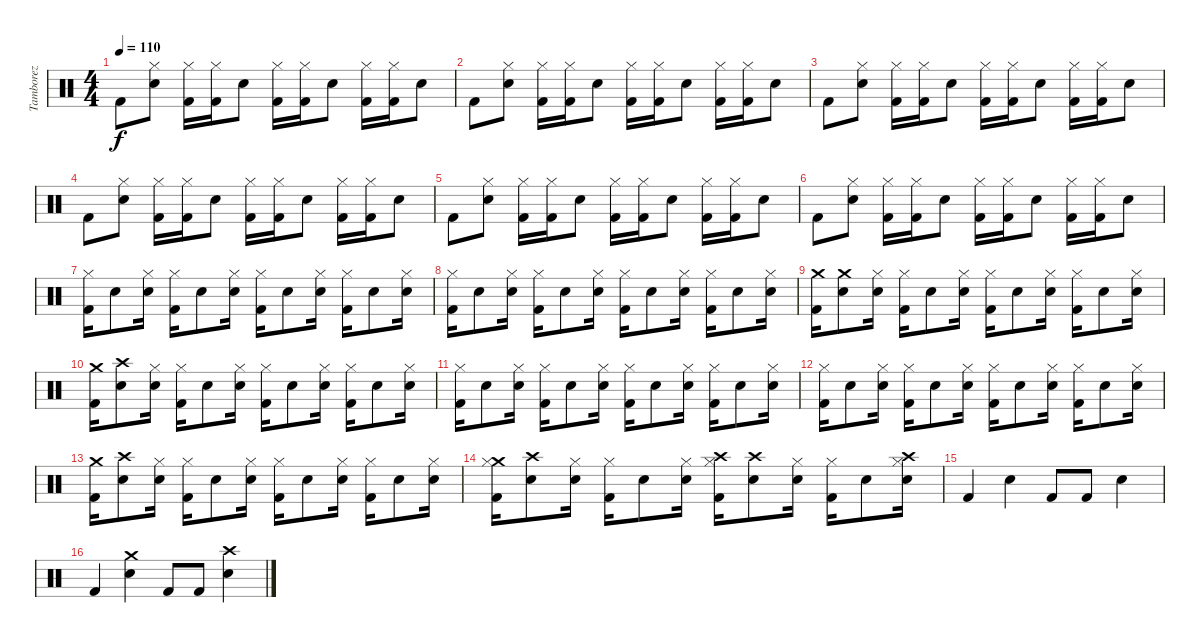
\track ("Tamborez" "Tamborez") {instrument percussion}
\staff {score}
\articulation defaults
\ts (4 4)
\tempo 110
\clef neutral
\ks c "Kick (hit) 2".8{dy f}
("Electric Snare (hit)" "Hi-Hat (closed)").8 ("Kick (hit) 2" "Hi-Hat (closed)").16 ("Kick (hit) 2" "Hi-Hat (closed)").16 "Electric Snare (hit)".8 ("Kick (hit) 2" "Hi-Hat (closed)").16 ("Kick (hit) 2" "Hi-Hat (closed)").16 "Electric Snare (hit)".8 ("Kick (hit) 2" "Hi-Hat (closed)").16 ("Kick (hit) 2" "Hi-Hat (closed)").16 "Electric Snare (hit)".8 |
"Kick (hit) 2".8 ("Electric Snare (hit)" "Hi-Hat (closed)").8 ("Kick (hit) 2" "Hi-Hat (closed)").16 ("Kick (hit) 2" "Hi-Hat (closed)").16 "Electric Snare (hit)".8 ("Kick (hit) 2" "Hi-Hat (closed)").16 ("Kick (hit) 2" "Hi-Hat (closed)").16 "Electric Snare (hit)".8 ("Kick (hit) 2" "Hi-Hat (closed)").16 ("Kick (hit) 2" "Hi-Hat (closed)").16 "Electric Snare (hit)".8 |
"Kick (hit) 2".8 ("Electric Snare (hit)" "Hi-Hat (closed)").8 ("Kick (hit) 2" "Hi-Hat (closed)").16 ("Kick (hit) 2" "Hi-Hat (closed)").16 "Electric Snare (hit)".8 ("Kick (hit) 2" "Hi-Hat (closed)").16 ("Kick (hit) 2" "Hi-Hat (closed)").16 "Electric Snare (hit)".8 ("Kick (hit) 2" "Hi-Hat (closed)").16 ("Kick (hit) 2" "Hi-Hat (closed)").16 "Electric Snare (hit)".8 |
"Kick (hit) 2".8 ("Electric Snare (hit)" "Hi-Hat (closed)").8 ("Kick (hit) 2" "Hi-Hat (closed)").16 ("Kick (hit) 2" "Hi-Hat (closed)").16 "Electric Snare (hit)".8 ("Kick (hit) 2" "Hi-Hat (closed)").16 ("Kick (hit) 2" "Hi-Hat (closed)").16 "Electric Snare (hit)".8 ("Kick (hit) 2" "Hi-Hat (closed)").16 ("Kick (hit) 2" "Hi-Hat (closed)").16 "Electric Snare (hit)".8 |
"Kick (hit) 2".8 ("Electric Snare (hit)" "Hi-Hat (closed)").8 ("Kick (hit) 2" "Hi-Hat (closed)").16 ("Kick (hit) 2" "Hi-Hat (closed)").16 "Electric Snare (hit)".8 ("Kick (hit) 2" "Hi-Hat (closed)").16 ("Kick (hit) 2" "Hi-Hat (closed)").16 "Electric Snare (hit)".8 ("Kick (hit) 2" "Hi-Hat (closed)").16 ("Kick (hit) 2" "Hi-Hat (closed)").16 "Electric Snare (hit)".8 |
"Kick (hit) 2".8 ("Electric Snare (hit)" "Hi-Hat (closed)").8 ("Kick (hit) 2" "Hi-Hat (closed)").16 ("Kick (hit) 2" "Hi-Hat (closed)").16 "Electric Snare (hit)".8 ("Kick (hit) 2" "Hi-Hat (closed)").16 ("Kick (hit) 2" "Hi-Hat (closed)").16 "Electric Snare (hit)".8 ("Kick (hit) 2" "Hi-Hat (closed)").16 ("Kick (hit) 2" "Hi-Hat (closed)").16 "Electric Snare (hit)".8 |
("Hi-Hat (closed)" "Kick (hit) 2").16 "Electric Snare (hit)".8 ("Hi-Hat (closed)" "Electric Snare (hit)").16 ("Hi-Hat (closed)" "Kick (hit) 2").16 "Electric Snare (hit)".8 ("Hi-Hat (closed)" "Electric Snare (hit)").16 ("Hi-Hat (closed)" "Kick (hit) 2").16 "Electric Snare (hit)".8 ("Hi-Hat (closed)" "Electric Snare (hit)").16 ("Hi-Hat (closed)" "Kick (hit) 2").16 "Electric Snare (hit)".8 ("Hi-Hat (closed)" "Electric Snare (hit)").16 |
("Hi-Hat (closed)" "Kick (hit) 2").16 "Electric Snare (hit)".8 ("Hi-Hat (closed)" "Electric Snare (hit)").16 ("Hi-Hat (closed)" "Kick (hit) 2").16 "Electric Snare (hit)".8 ("Hi-Hat (closed)" "Electric Snare (hit)").16 ("Hi-Hat (closed)" "Kick (hit) 2").16 "Electric Snare (hit)".8 ("Hi-Hat (closed)" "Electric Snare (hit)").16 ("Hi-Hat (closed)" "Kick (hit) 2").16 "Electric Snare (hit)".8 ("Hi-Hat (closed)" "Electric Snare (hit)").16 |
("Crash medium (hit)" "Kick (hit) 2").16 ("Crash medium (hit)" "Electric Snare (hit)").8 ("Hi-Hat (closed)" "Electric Snare (hit)").16 ("Hi-Hat (closed)" "Kick (hit) 2").16 "Electric Snare (hit)".8 ("Hi-Hat (closed)" "Electric Snare (hit)").16 ("Hi-Hat (closed)" "Kick (hit) 2").16 "Electric Snare (hit)".8 ("Hi-Hat (closed)" "Electric Snare (hit)").16 ("Hi-Hat (closed)" "Kick (hit) 2").16 "Electric Snare (hit)".8 ("Hi-Hat (closed)" "Electric Snare (hit)").16 |
("Crash medium (hit)" "Kick (hit) 2").16 ("Crash high (hit)" "Electric Snare (hit)").8 ("Hi-Hat (closed)" "Electric Snare (hit)").16 ("Hi-Hat (closed)" "Kick (hit) 2").16 "Electric Snare (hit)".8 ("Hi-Hat (closed)" "Electric Snare (hit)").16 ("Hi-Hat (closed)" "Kick (hit) 2").16 "Electric Snare (hit)".8 ("Hi-Hat (closed)" "Electric Snare (hit)").16 ("Hi-Hat (closed)" "Kick (hit) 2").16 "Electric Snare (hit)".8 ("Hi-Hat (closed)" "Electric Snare (hit)").16 |
("Hi-Hat (closed)" "Kick (hit) 2").16 "Electric Snare (hit)".8 ("Hi-Hat (closed)" "Electric Snare (hit)").16 ("Hi-Hat (closed)" "Kick (hit) 2").16 "Electric Snare (hit)".8 ("Hi-Hat (closed)" "Electric Snare (hit)").16 ("Hi-Hat (closed)" "Kick (hit) 2").16 "Electric Snare (hit)".8 ("Hi-Hat (closed)" "Electric Snare (hit)").16 ("Hi-Hat (closed)" "Kick (hit) 2").16 "Electric Snare (hit)".8 ("Hi-Hat (closed)" "Electric Snare (hit)").16 |
("Hi-Hat (closed)" "Kick (hit) 2").16 "Electric Snare (hit)".8 ("Hi-Hat (closed)" "Electric Snare (hit)").16 ("Hi-Hat (closed)" "Kick (hit) 2").16 "Electric Snare (hit)".8 ("Hi-Hat (closed)" "Electric Snare (hit)").16 ("Hi-Hat (closed)" "Kick (hit) 2").16 "Electric Snare (hit)".8 ("Hi-Hat (closed)" "Electric Snare (hit)").16 ("Hi-Hat (closed)" "Kick (hit) 2").16 "Electric Snare (hit)".8 ("Hi-Hat (closed)" "Electric Snare (hit)").16 |
("Crash medium (hit)" "Kick (hit) 2").16 ("Crash high (hit)" "Electric Snare (hit)").8 ("Hi-Hat (closed)" "Electric Snare (hit)").16 ("Hi-Hat (closed)" "Kick (hit) 2").16 "Electric Snare (hit)".8 ("Hi-Hat (closed)" "Electric Snare (hit)").16 ("Hi-Hat (closed)" "Kick (hit) 2").16 "Electric Snare (hit)".8 ("Hi-Hat (closed)" "Electric Snare (hit)").16 ("Hi-Hat (closed)" "Kick (hit) 2").16 "Electric Snare (hit)".8 ("Hi-Hat (closed)" "Electric Snare (hit)").16 |
("Crash medium (hit)" "Hi-Hat (closed)" "Kick (hit) 2").16 ("Crash high (hit)" "Electric Snare (hit)").8 ("Hi-Hat (closed)" "Electric Snare (hit)").16 ("Hi-Hat (closed)" "Kick (hit) 2").16 "Electric Snare (hit)".8 ("Hi-Hat (closed)" "Electric Snare (hit)").16 ("Crash high (hit)" "Hi-Hat (closed)" "Kick (hit) 2").16 ("Crash high (hit)" "Electric Snare (hit)").8 ("Hi-Hat (closed)" "Electric Snare (hit)").16 ("Hi-Hat (closed)" "Kick (hit) 2").16 "Electric Snare (hit)".8 ("Crash high (hit)" "Hi-Hat (closed)" "Electric Snare (hit)").16 |
"Kick (hit) 2".4 "Electric Snare (hit)".4 "Kick (hit) 2".8 "Kick (hit) 2".8 "Electric Snare (hit)".4 |
"Kick (hit) 2".4 ("Crash medium (hit)" "Electric Snare (hit)").4 "Kick (hit) 2".8 "Kick (hit) 2".8 ("Crash high (hit)" "Electric Snare (hit)").4
